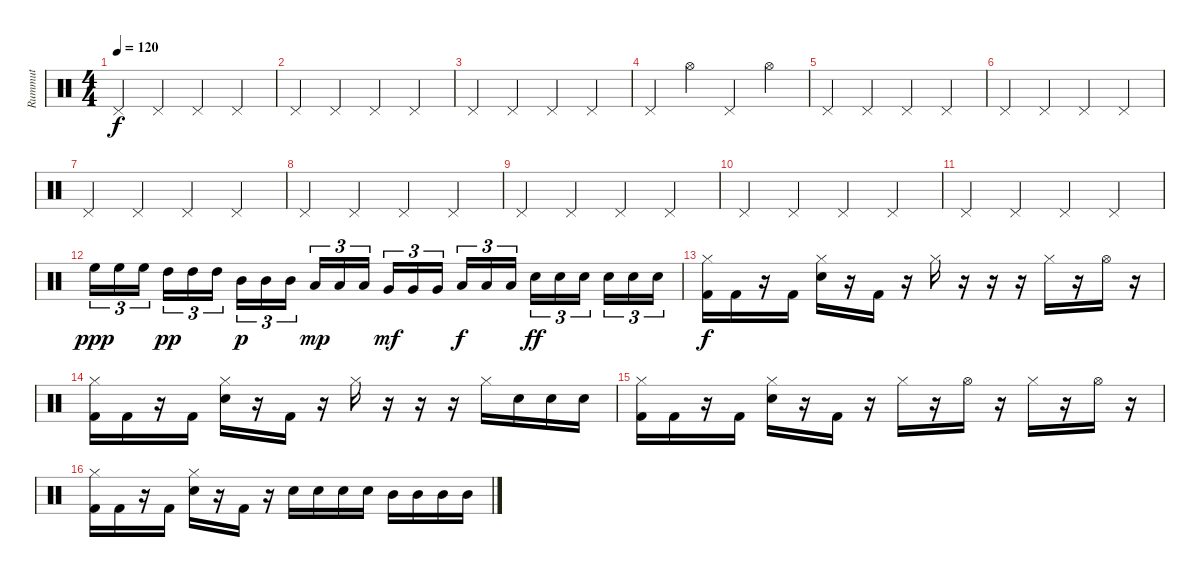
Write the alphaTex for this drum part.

\track ("Rummut" "Rummut") {instrument percussion}
\staff {score}
\articulation defaults
\ts (4 4)
\tempo 120
\clef neutral
\ks c "Pedal Hi-Hat (hit)".4{dy f} "Pedal Hi-Hat (hit)".4 "Pedal Hi-Hat (hit)".4 "Pedal Hi-Hat (hit)".4
|
"Pedal Hi-Hat (hit)".4 "Pedal Hi-Hat (hit)".4 "Pedal Hi-Hat (hit)".4 "Pedal Hi-Hat (hit)".4 |
"Pedal Hi-Hat (hit)".4 "Pedal Hi-Hat (hit)".4 "Pedal Hi-Hat (hit)".4 "Pedal Hi-Hat (hit)".4 |
"Pedal Hi-Hat (hit)".4 "Hi-Hat (open)".4 "Pedal Hi-Hat (hit)".4 "Hi-Hat (open)".4 |
"Pedal Hi-Hat (hit)".4 "Pedal Hi-Hat (hit)".4 "Pedal Hi-Hat (hit)".4 "Pedal Hi-Hat (hit)".4 |
"Pedal Hi-Hat (hit)".4 "Pedal Hi-Hat (hit)".4 "Pedal Hi-Hat (hit)".4 "Pedal Hi-Hat (hit)".4 |
"Pedal Hi-Hat (hit)".4 "Pedal Hi-Hat (hit)".4 "Pedal Hi-Hat (hit)".4 "Pedal Hi-Hat (hit)".4 |
"Pedal Hi-Hat (hit)".4 "Pedal Hi-Hat (hit)".4 "Pedal Hi-Hat (hit)".4 "Pedal Hi-Hat (hit)".4 |
"Pedal Hi-Hat (hit)".4 "Pedal Hi-Hat (hit)".4 "Pedal Hi-Hat (hit)".4 "Pedal Hi-Hat (hit)".4 |
"Pedal Hi-Hat (hit)".4 "Pedal Hi-Hat (hit)".4 "Pedal Hi-Hat (hit)".4 "Pedal Hi-Hat (hit)".4 |
"Pedal Hi-Hat (hit)".4 "Pedal Hi-Hat (hit)".4 "Pedal Hi-Hat (hit)".4 "Pedal Hi-Hat (hit)".4 |
"High Floor Tom (hit)".16{tu (3 2) dy ppp} "High Floor Tom (hit)".16{tu (3 2)} "High Floor Tom (hit)".16{tu (3 2)} "High Tom (hit)".16{tu (3 2) dy pp} "High Tom (hit)".16{tu (3 2)} "High Tom (hit)".16{tu (3 2)} "Mid Tom (hit)".16{tu (3 2) dy p} "Mid Tom (hit)".16{tu (3 2)} "Mid Tom (hit)".16{tu (3 2)} "Low Tom (hit)".16{tu (3 2) dy mp} "Low Tom (hit)".16{tu (3 2)} "Low Tom (hit)".16{tu (3 2)} "Very Low Tom (hit)".16{tu (3 2) dy mf} "Very Low Tom (hit)".16{tu (3 2)} "Very Low Tom (hit)".16{tu (3 2)} "Low Floor Tom (hit)".16{tu (3 2) dy f} "Low Floor Tom (hit)".16{tu (3 2)} "Low Floor Tom (hit)".16{tu (3 2)} "Snare (hit) 2".16{tu (3 2) dy ff} "Snare (hit) 2".16{tu (3 2)} "Snare (hit) 2".16{tu (3 2)} "Snare (hit) 2".16{tu (3 2)} "Snare (hit) 2".16{tu (3 2)} "Snare (hit) 2".16{tu (3 2)} |
("Hi-Hat (closed)" "Kick (hit) 2").16{dy f} "Kick (hit) 2".16 r.16 "Kick (hit) 2".16 ("Hi-Hat (closed)" "Snare (hit) 2").16 r.16 "Kick (hit) 2".16 r.16 "Hi-Hat (closed)".16 r.16 r.16 r.16 "Hi-Hat (closed)".16 r.16 "Hi-Hat (open)".16 r.16 |
("Hi-Hat (closed)" "Kick (hit) 2").16 "Kick (hit) 2".16 r.16 "Kick (hit) 2".16 ("Hi-Hat (closed)" "Snare (hit) 2").16 r.16 "Kick (hit) 2".16 r.16 "Hi-Hat (closed)".16 r.16 r.16 r.16 "Hi-Hat (closed)".16 "Snare (hit) 2".16 "Snare (hit) 2".16 "Snare (hit) 2".16 |
("Hi-Hat (closed)" "Kick (hit) 2").16 "Kick (hit) 2".16 r.16 "Kick (hit) 2".16 ("Hi-Hat (closed)" "Snare (hit) 2").16 r.16 "Kick (hit) 2".16 r.16 "Hi-Hat (closed)".16 r.16 "Hi-Hat (open)".16 r.16 "Hi-Hat (closed)".16 r.16 "Hi-Hat (open)".16 r.16 |
("Hi-Hat (closed)" "Kick (hit) 2").16 "Kick (hit) 2".16 r.16 "Kick (hit) 2".16 ("Hi-Hat (closed)" "Snare (hit) 2").16 r.16 "Kick (hit) 2".16 r.16 "Snare (hit) 2".16 "Snare (hit) 2".16 "Snare (hit) 2".16 "Snare (hit) 2".16 "Mid Tom (hit)".16 "Mid Tom (hit)".16 "Mid Tom (hit)".16 "Mid Tom (hit)".16
